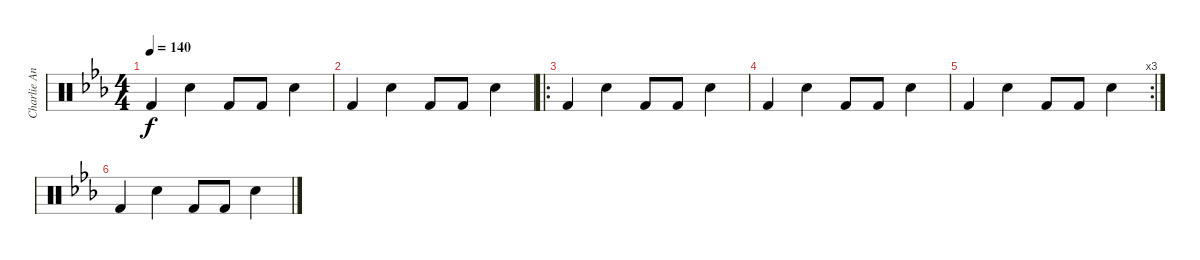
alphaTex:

\track ("Charlie Angel" "Charlie An") {instrument percussion}
\staff {score}
\articulation defaults
\ts (4 4)
\tempo 140
\clef neutral
\ks eb "Kick (hit) 2".4{dy f} "Electric Snare (hit)".4 "Kick (hit) 2".8 "Kick (hit) 2".8 "Electric Snare (hit)".4
|
"Kick (hit) 2".4 "Electric Snare (hit)".4 "Kick (hit) 2".8 "Kick (hit) 2".8 "Electric Snare (hit)".4 |
\ro "Kick (hit) 2".4 "Electric Snare (hit)".4 "Kick (hit) 2".8 "Kick (hit) 2".8 "Electric Snare (hit)".4
|
"Kick (hit) 2".4 "Electric Snare (hit)".4 "Kick (hit) 2".8 "Kick (hit) 2".8 "Electric Snare (hit)".4 |
\rc 3 "Kick (hit) 2".4 "Electric Snare (hit)".4 "Kick (hit) 2".8 "Kick (hit) 2".8 "Electric Snare (hit)".4
|
"Kick (hit) 2".4 "Electric Snare (hit)".4 "Kick (hit) 2".8 "Kick (hit) 2".8 "Electric Snare (hit)".4
